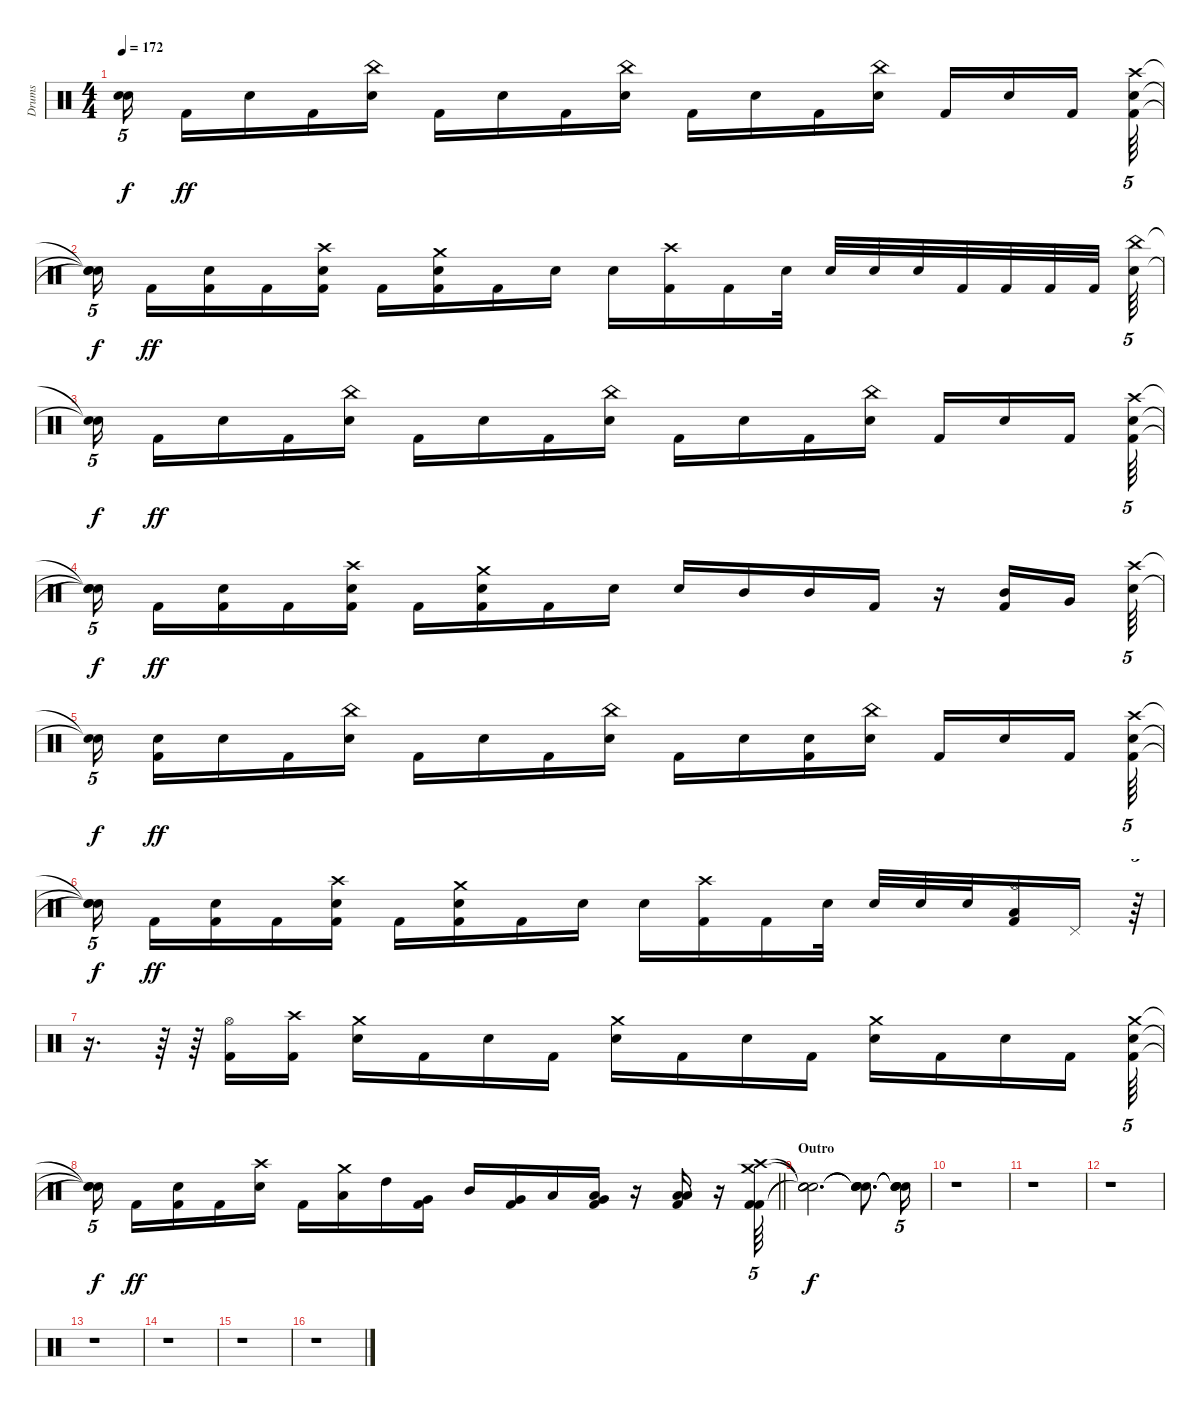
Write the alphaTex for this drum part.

\track ("Drums" "Drums") {instrument percussion}
\staff {score}
\articulation defaults
\ts (4 4)
\tempo 172
\clef neutral
\ks c
("Snare (hit)"{t} "Snare (hit)"{t}).16{tu (5 4) dy f beam splitsecondary} "Kick (hit) 2".16{dy ff} "Snare (hit) 2".16 "Kick (hit) 2".16 ("China (hit)" "Snare (hit) 2").16 "Kick (hit) 2".16 "Snare (hit) 2".16 "Kick (hit) 2".16 ("China (hit)" "Snare (hit) 2").16 "Kick (hit) 2".16 "Snare (hit) 2".16 "Kick (hit) 2".16 ("China (hit)" "Snare (hit) 2").16 "Kick (hit) 2".16 "Snare (hit) 2".16 "Kick (hit) 2".16{beam splitsecondary} ("Crash high (hit)" "Kick (hit) 2" "Snare (hit) 2").64{tu (5 4)} |
("Snare (hit)"{t} "Snare (hit)"{t} "Snare (hit)"{t}).16{tu (5 4) dy f beam splitsecondary} "Kick (hit) 2".16{dy ff} ("Kick (hit) 2" "Snare (hit) 2").16 "Kick (hit) 2".16 ("Crash high (hit)" "Kick (hit) 2" "Snare (hit) 2").16 "Kick (hit) 2".16 ("Crash medium (hit)" "Kick (hit) 2" "Snare (hit) 2").16 "Kick (hit) 2".16 "Snare (hit) 2".16 "Snare (hit) 2".16 ("Crash high (hit)" "Kick (hit) 2").16 "Kick (hit) 2".16 "Snare (hit) 2".32 "Snare (hit) 2".32 "Snare (hit) 2".32 "Snare (hit) 2".32 "Kick (hit) 2".32 "Kick (hit) 2".32 "Kick (hit) 2".32 "Kick (hit) 2".32{beam splitsecondary} ("China (hit)" "Snare (hit) 2").64{tu (5 4)} |
("Snare (hit)"{t} "Snare (hit)"{t}).16{tu (5 4) dy f beam splitsecondary} "Kick (hit) 2".16{dy ff} "Snare (hit) 2".16 "Kick (hit) 2".16 ("China (hit)" "Snare (hit) 2").16 "Kick (hit) 2".16 "Snare (hit) 2".16 "Kick (hit) 2".16 ("China (hit)" "Snare (hit) 2").16 "Kick (hit) 2".16 "Snare (hit) 2".16 "Kick (hit) 2".16 ("China (hit)" "Snare (hit) 2").16 "Kick (hit) 2".16 "Snare (hit) 2".16 "Kick (hit) 2".16{beam splitsecondary} ("Crash high (hit)" "Kick (hit) 2" "Snare (hit) 2").64{tu (5 4)} |
("Snare (hit)"{t} "Snare (hit)"{t} "Snare (hit)"{t}).16{tu (5 4) dy f beam splitsecondary} "Kick (hit) 2".16{dy ff} ("Kick (hit) 2" "Snare (hit) 2").16 "Kick (hit) 2".16 ("Crash high (hit)" "Kick (hit) 2" "Snare (hit) 2").16 "Kick (hit) 2".16 ("Crash medium (hit)" "Kick (hit) 2" "Snare (hit) 2").16 "Kick (hit) 2".16 "Snare (hit) 2".16 "Snare (hit) 2".16 "Mid Tom (hit)".16 "Mid Tom (hit)".16 "Kick (hit) 2".16 r.16 ("Kick (hit) 2" "Mid Tom (hit)").16 "Very Low Tom (hit)".16{beam splitsecondary} ("Crash high (hit)" "Snare (hit) 2").64{tu (5 4)} |
("Snare (hit)"{t} "Snare (hit)"{t}).16{tu (5 4) dy f beam splitsecondary} ("Kick (hit) 2" "Snare (hit) 2").16{dy ff} "Snare (hit) 2".16 "Kick (hit) 2".16 ("China (hit)" "Snare (hit) 2").16 "Kick (hit) 2".16 "Snare (hit) 2".16 "Kick (hit) 2".16 ("China (hit)" "Snare (hit) 2").16 "Kick (hit) 2".16 "Snare (hit) 2".16 ("Kick (hit) 2" "Snare (hit) 2").16 ("China (hit)" "Snare (hit) 2").16 "Kick (hit) 2".16 "Snare (hit) 2".16 "Kick (hit) 2".16{beam splitsecondary} ("Crash high (hit)" "Kick (hit) 2" "Snare (hit) 2").64{tu (5 4)} |
("Snare (hit)"{t} "Snare (hit)"{t} "Snare (hit)"{t}).16{tu (5 4) dy f beam splitsecondary} "Kick (hit) 2".16{dy ff} ("Kick (hit) 2" "Snare (hit) 2").16 "Kick (hit) 2".16 ("Crash high (hit)" "Kick (hit) 2" "Snare (hit) 2").16 "Kick (hit) 2".16 ("Crash medium (hit)" "Kick (hit) 2" "Snare (hit) 2").16 "Kick (hit) 2".16 "Snare (hit) 2".16 "Snare (hit) 2".16 ("Crash high (hit)" "Kick (hit) 2").16 "Kick (hit) 2".16 "Snare (hit) 2".32 "Snare (hit) 2".32 "Snare (hit) 2".32 "Snare (hit) 2".32 ("Hi-Hat (open)" "Kick (hit) 2" "Low Tom (hit)").16 "Pedal Hi-Hat (hit)".16 r.64{tu (5 4)} |
r.16{d} r.64 r.64 ("Hi-Hat (open)" "Kick (hit) 2").16 ("Crash high (hit)" "Kick (hit) 2").16 ("Crash medium (hit)" "Snare (hit) 2").16 "Kick (hit) 2".16 "Snare (hit) 2".16 "Kick (hit) 2".16 ("Crash medium (hit)" "Snare (hit) 2").16 "Kick (hit) 2".16 "Snare (hit) 2".16 "Kick (hit) 2".16 ("Crash medium (hit)" "Snare (hit) 2").16 "Kick (hit) 2".16 "Snare (hit) 2".16 "Kick (hit) 2".16 ("Crash medium (hit)" "Kick (hit) 2" "Snare (hit) 2").64{tu (5 4)} |
\barLineRight lightlight
("Snare (hit)"{t} "Snare (hit)"{t} "Snare (hit)"{t}).16{tu (5 4) dy f beam splitsecondary} "Kick (hit) 2".16{dy ff} ("Kick (hit) 2" "Snare (hit) 2").16 "Kick (hit) 2".16 ("Crash high (hit)" "Snare (hit) 2").16 "Kick (hit) 2".16 ("Crash medium (hit)" "Low Tom (hit)").16 "High Tom (hit)".16 ("Kick (hit) 2" "Very Low Tom (hit)").16 "Mid Tom (hit)".16 ("Kick (hit) 2" "Very Low Tom (hit)").16 "Low Tom (hit)".16 ("Kick (hit) 2" "Low Floor Tom (hit)" "Very Low Tom (hit)").16 r.16 ("Kick (hit) 2" "Low Floor Tom (hit)" "Low Tom (hit)").16 r.16 ("Crash high (hit)" "Crash medium (hit)" "Kick (hit) 2" "Kick (hit) 2").64{tu (5 4)} |
\section ("" "Outro")
("Snare (hit)"{t} "Snare (hit)"{t} "Snare (hit)"{t} "Snare (hit)"{t}).2{d dy f} ("Snare (hit)"{t} "Snare (hit)"{t} "Snare (hit)"{t} "Snare (hit)"{t}).8{d} ("Snare (hit)"{t} "Snare (hit)"{t} "Snare (hit)"{t} "Snare (hit)"{t}).16{tu (5 4)} |
r.1 |
r.1 |
r.1 |
r.1 |
r.1 |
r.1 |
r.1
